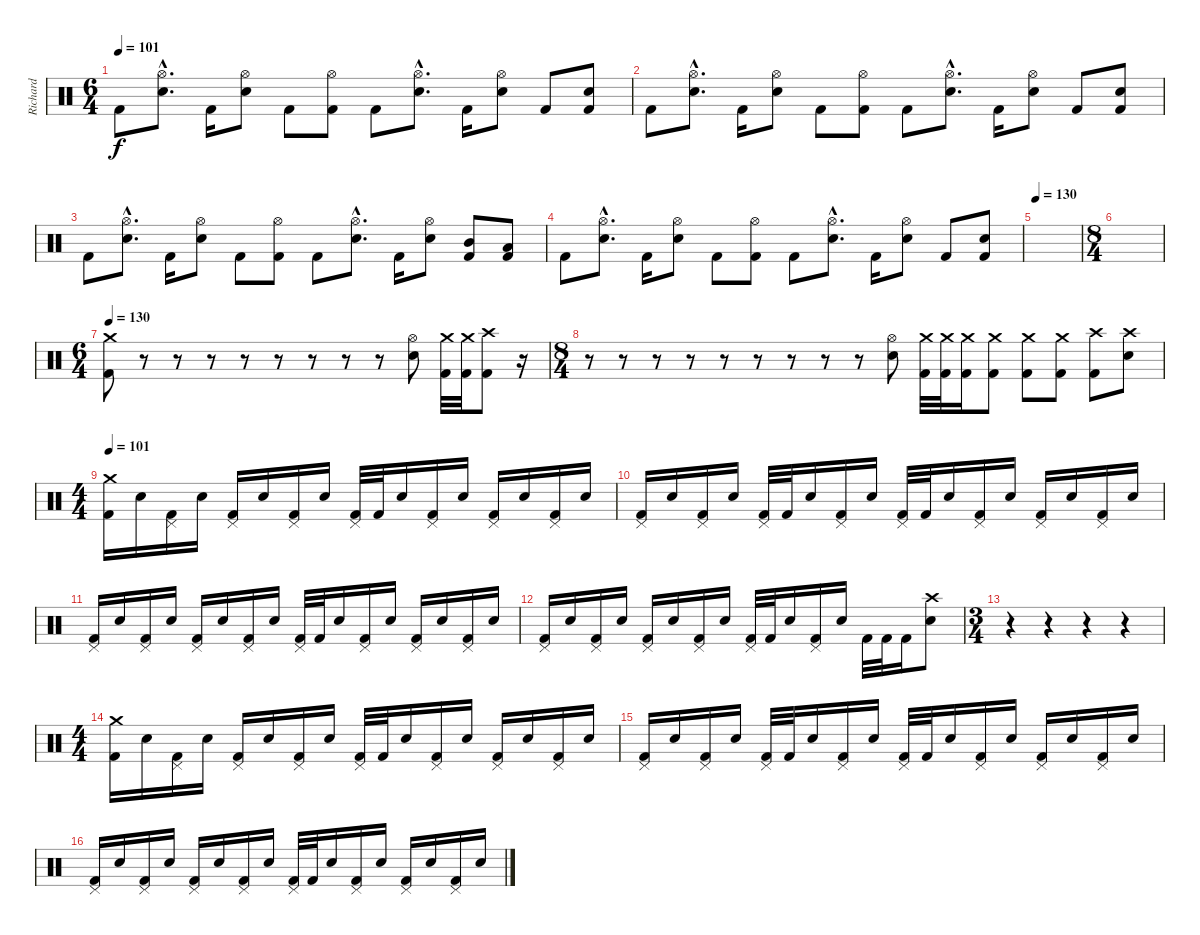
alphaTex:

\track ("Richard" "Richard") {instrument percussion}
\staff {score}
\articulation defaults
\ts (6 4)
\tempo 101
\clef neutral
\ks c "Kick (hit) 2".8{dy f}
("Hi-Hat (open)"{hac} "Electric Snare (hit)"{hac}).8{d} "Kick (hit) 2".16 ("Hi-Hat (open)" "Electric Snare (hit)").8 "Kick (hit) 2".8 ("Hi-Hat (open)" "Kick (hit) 2").8 "Kick (hit) 2".8 ("Hi-Hat (open)"{hac} "Electric Snare (hit)"{hac}).8{d} "Kick (hit) 2".16 ("Hi-Hat (open)" "Electric Snare (hit)").8 "Kick (hit) 2".8 ("Electric Snare (hit)" "Kick (hit) 2").8 |
"Kick (hit) 2".8 ("Hi-Hat (open)"{hac} "Electric Snare (hit)"{hac}).8{d} "Kick (hit) 2".16 ("Hi-Hat (open)" "Electric Snare (hit)").8 "Kick (hit) 2".8 ("Hi-Hat (open)" "Kick (hit) 2").8 "Kick (hit) 2".8 ("Hi-Hat (open)"{hac} "Electric Snare (hit)"{hac}).8{d} "Kick (hit) 2".16 ("Hi-Hat (open)" "Electric Snare (hit)").8 "Kick (hit) 2".8 ("Electric Snare (hit)" "Kick (hit) 2").8 |
"Kick (hit) 2".8 ("Hi-Hat (open)"{hac} "Electric Snare (hit)"{hac}).8{d} "Kick (hit) 2".16 ("Hi-Hat (open)" "Electric Snare (hit)").8 "Kick (hit) 2".8 ("Hi-Hat (open)" "Kick (hit) 2").8 "Kick (hit) 2".8 ("Hi-Hat (open)"{hac} "Electric Snare (hit)"{hac}).8{d} "Kick (hit) 2".16 ("Hi-Hat (open)" "Electric Snare (hit)").8 ("Mid Tom (hit)" "Kick (hit) 2").8 ("Low Tom (hit)" "Kick (hit) 2").8 |
"Kick (hit) 2".8 ("Hi-Hat (open)"{hac} "Electric Snare (hit)"{hac}).8{d} "Kick (hit) 2".16 ("Hi-Hat (open)" "Electric Snare (hit)").8 "Kick (hit) 2".8 ("Hi-Hat (open)" "Kick (hit) 2").8 "Kick (hit) 2".8 ("Hi-Hat (open)"{hac} "Electric Snare (hit)"{hac}).8{d} "Kick (hit) 2".16 ("Hi-Hat (open)" "Electric Snare (hit)").8 "Kick (hit) 2".8 ("Electric Snare (hit)" "Kick (hit) 2").8 |
\tempo 130
|
\ts (8 4)
|
\ts (6 4)
\tempo 130
("Crash medium (hit)" "Kick (hit) 2").8 r.8 r.8 r.8 r.8 r.8 r.8 r.8 r.8 ("Hi-Hat (open)" "Electric Snare (hit)").8 ("Crash medium (hit)" "Kick (hit) 2").32 ("Crash medium (hit)" "Kick (hit) 2").32 ("Crash high (hit)" "Kick (hit) 2").8 r.16 |
\ts (8 4)
r.8 r.8 r.8 r.8 r.8 r.8 r.8 r.8 r.8 ("Hi-Hat (open)" "Electric Snare (hit)").8 ("Crash medium (hit)" "Kick (hit) 2").32 ("Crash medium (hit)" "Kick (hit) 2").32 ("Crash medium (hit)" "Kick (hit) 2").16 ("Crash medium (hit)" "Kick (hit) 2").8 ("Crash medium (hit)" "Kick (hit) 2").8 ("Crash medium (hit)" "Kick (hit) 2").8 ("Crash high (hit)" "Kick (hit) 2").8 ("Crash high (hit)" "Electric Snare (hit)").8 |
\ts (4 4)
\tempo 101
("Crash medium (hit)" "Kick (hit) 2").16 "Electric Snare (hit)".16 ("Pedal Hi-Hat (hit)" "Kick (hit) 2").16 "Electric Snare (hit)".16 ("Pedal Hi-Hat (hit)" "Kick (hit) 2").16 "Electric Snare (hit)".16 ("Pedal Hi-Hat (hit)" "Kick (hit) 2").16 "Electric Snare (hit)".16 ("Pedal Hi-Hat (hit)" "Kick (hit) 2").32 "Kick (hit) 2".32 "Electric Snare (hit)".16 ("Pedal Hi-Hat (hit)" "Kick (hit) 2").16 "Electric Snare (hit)".16 ("Pedal Hi-Hat (hit)" "Kick (hit) 2").16 "Electric Snare (hit)".16 ("Pedal Hi-Hat (hit)" "Kick (hit) 2").16 "Electric Snare (hit)".16 |
("Pedal Hi-Hat (hit)" "Kick (hit) 2").16 "Electric Snare (hit)".16 ("Pedal Hi-Hat (hit)" "Kick (hit) 2").16 "Electric Snare (hit)".16 ("Pedal Hi-Hat (hit)" "Kick (hit) 2").32 "Kick (hit) 2".32 "Electric Snare (hit)".16 ("Pedal Hi-Hat (hit)" "Kick (hit) 2").16 "Electric Snare (hit)".16 ("Pedal Hi-Hat (hit)" "Kick (hit) 2").32 "Kick (hit) 2".32 "Electric Snare (hit)".16 ("Pedal Hi-Hat (hit)" "Kick (hit) 2").16 "Electric Snare (hit)".16 ("Pedal Hi-Hat (hit)" "Kick (hit) 2").16 "Electric Snare (hit)".16 ("Pedal Hi-Hat (hit)" "Kick (hit) 2").16 "Electric Snare (hit)".16 |
("Pedal Hi-Hat (hit)" "Kick (hit) 2").16 "Electric Snare (hit)".16 ("Pedal Hi-Hat (hit)" "Kick (hit) 2").16 "Electric Snare (hit)".16 ("Pedal Hi-Hat (hit)" "Kick (hit) 2").16 "Electric Snare (hit)".16 ("Pedal Hi-Hat (hit)" "Kick (hit) 2").16 "Electric Snare (hit)".16 ("Pedal Hi-Hat (hit)" "Kick (hit) 2").32 "Kick (hit) 2".32 "Electric Snare (hit)".16 ("Pedal Hi-Hat (hit)" "Kick (hit) 2").16 "Electric Snare (hit)".16 ("Pedal Hi-Hat (hit)" "Kick (hit) 2").16 "Electric Snare (hit)".16 ("Pedal Hi-Hat (hit)" "Kick (hit) 2").16 "Electric Snare (hit)".16 |
("Pedal Hi-Hat (hit)" "Kick (hit) 2").16 "Electric Snare (hit)".16 ("Pedal Hi-Hat (hit)" "Kick (hit) 2").16 "Electric Snare (hit)".16 ("Pedal Hi-Hat (hit)" "Kick (hit) 2").16 "Electric Snare (hit)".16 ("Pedal Hi-Hat (hit)" "Kick (hit) 2").16 "Electric Snare (hit)".16 ("Pedal Hi-Hat (hit)" "Kick (hit) 2").32 "Kick (hit) 2".32 "Electric Snare (hit)".16 ("Pedal Hi-Hat (hit)" "Kick (hit) 2").16 "Electric Snare (hit)".16 "Kick (hit) 2".32 "Kick (hit) 2".32 "Kick (hit) 2".16 ("Crash high (hit)" "Electric Snare (hit)").8 |
\ts (3 4)
r.4 r.4 r.4 r.4 |
\ts (4 4)
("Crash medium (hit)" "Kick (hit) 2").16 "Electric Snare (hit)".16 ("Pedal Hi-Hat (hit)" "Kick (hit) 2").16 "Electric Snare (hit)".16 ("Pedal Hi-Hat (hit)" "Kick (hit) 2").16 "Electric Snare (hit)".16 ("Pedal Hi-Hat (hit)" "Kick (hit) 2").16 "Electric Snare (hit)".16 ("Pedal Hi-Hat (hit)" "Kick (hit) 2").32 "Kick (hit) 2".32 "Electric Snare (hit)".16 ("Pedal Hi-Hat (hit)" "Kick (hit) 2").16 "Electric Snare (hit)".16 ("Pedal Hi-Hat (hit)" "Kick (hit) 2").16 "Electric Snare (hit)".16 ("Pedal Hi-Hat (hit)" "Kick (hit) 2").16 "Electric Snare (hit)".16 |
("Pedal Hi-Hat (hit)" "Kick (hit) 2").16 "Electric Snare (hit)".16 ("Pedal Hi-Hat (hit)" "Kick (hit) 2").16 "Electric Snare (hit)".16 ("Pedal Hi-Hat (hit)" "Kick (hit) 2").32 "Kick (hit) 2".32 "Electric Snare (hit)".16 ("Pedal Hi-Hat (hit)" "Kick (hit) 2").16 "Electric Snare (hit)".16 ("Pedal Hi-Hat (hit)" "Kick (hit) 2").32 "Kick (hit) 2".32 "Electric Snare (hit)".16 ("Pedal Hi-Hat (hit)" "Kick (hit) 2").16 "Electric Snare (hit)".16 ("Pedal Hi-Hat (hit)" "Kick (hit) 2").16 "Electric Snare (hit)".16 ("Pedal Hi-Hat (hit)" "Kick (hit) 2").16 "Electric Snare (hit)".16 |
("Pedal Hi-Hat (hit)" "Kick (hit) 2").16 "Electric Snare (hit)".16 ("Pedal Hi-Hat (hit)" "Kick (hit) 2").16 "Electric Snare (hit)".16 ("Pedal Hi-Hat (hit)" "Kick (hit) 2").16 "Electric Snare (hit)".16 ("Pedal Hi-Hat (hit)" "Kick (hit) 2").16 "Electric Snare (hit)".16 ("Pedal Hi-Hat (hit)" "Kick (hit) 2").32 "Kick (hit) 2".32 "Electric Snare (hit)".16 ("Pedal Hi-Hat (hit)" "Kick (hit) 2").16 "Electric Snare (hit)".16 ("Pedal Hi-Hat (hit)" "Kick (hit) 2").16 "Electric Snare (hit)".16 ("Pedal Hi-Hat (hit)" "Kick (hit) 2").16 "Electric Snare (hit)".16
